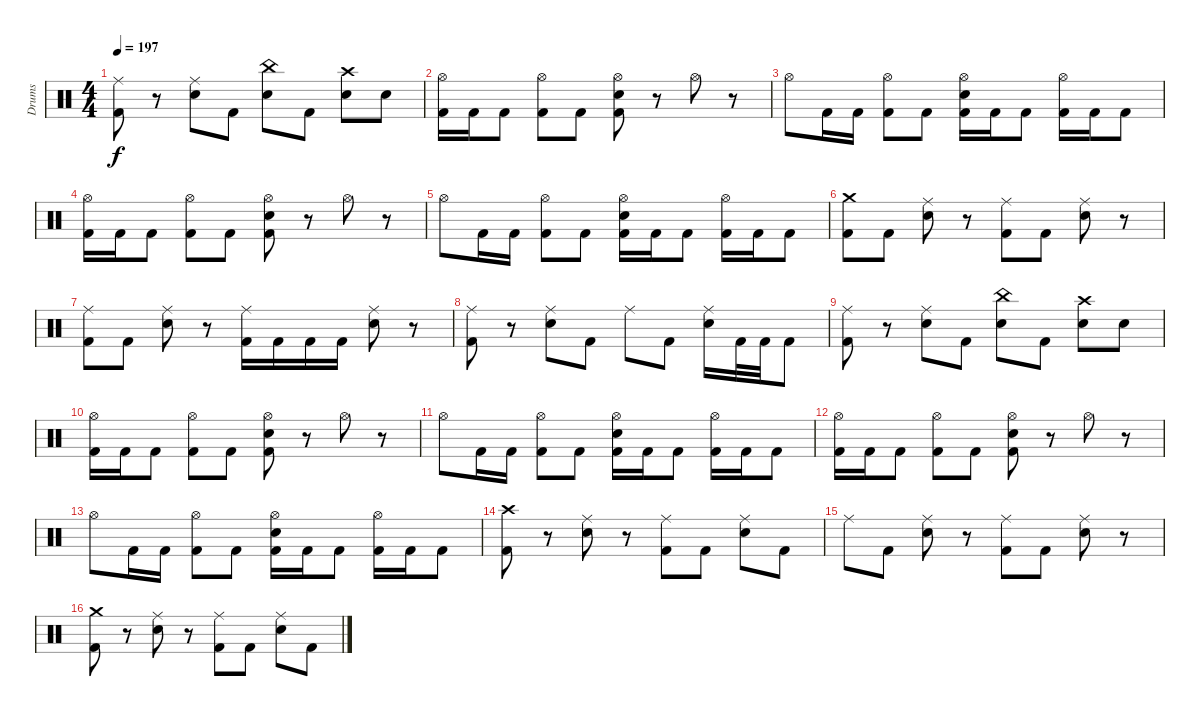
\track ("Drums" "Drums") {instrument percussion}
\staff {score}
\articulation defaults
\ts (4 4)
\tempo 197
\clef neutral
\ks c
("Ride (middle)" "Kick (hit) 2").8{dy f} r.8 ("Ride (middle)" "Electric Snare (hit)").8 "Kick (hit) 2".8 ("China (hit)" "Electric Snare (hit)").8 "Kick (hit) 2".8 ("Crash high (hit)" "Electric Snare (hit)").8 "Electric Snare (hit)".8 |
("Hi-Hat (open)" "Kick (hit) 2").16 "Kick (hit) 2".16 "Kick (hit) 2".8 ("Hi-Hat (open)" "Kick (hit) 2").8 "Kick (hit) 2".8 ("Hi-Hat (open)" "Electric Snare (hit)" "Kick (hit) 2").8 r.8 "Hi-Hat (open)".8 r.8 |
"Hi-Hat (open)".8 "Kick (hit) 2".16 "Kick (hit) 2".16 ("Hi-Hat (open)" "Kick (hit) 2").8 "Kick (hit) 2".8 ("Hi-Hat (open)" "Electric Snare (hit)" "Kick (hit) 2").16 "Kick (hit) 2".16 "Kick (hit) 2".8 ("Hi-Hat (open)" "Kick (hit) 2").16 "Kick (hit) 2".16 "Kick (hit) 2".8 |
("Hi-Hat (open)" "Kick (hit) 2").16 "Kick (hit) 2".16 "Kick (hit) 2".8 ("Hi-Hat (open)" "Kick (hit) 2").8 "Kick (hit) 2".8 ("Hi-Hat (open)" "Electric Snare (hit)" "Kick (hit) 2").8 r.8 "Hi-Hat (open)".8 r.8 |
"Hi-Hat (open)".8 "Kick (hit) 2".16 "Kick (hit) 2".16 ("Hi-Hat (open)" "Kick (hit) 2").8 "Kick (hit) 2".8 ("Hi-Hat (open)" "Electric Snare (hit)" "Kick (hit) 2").16 "Kick (hit) 2".16 "Kick (hit) 2".8 ("Hi-Hat (open)" "Kick (hit) 2").16 "Kick (hit) 2".16 "Kick (hit) 2".8 |
("Crash medium (hit)" "Kick (hit) 2").8 "Kick (hit) 2".8 ("Ride (middle)" "Electric Snare (hit)").8 r.8 ("Ride (middle)" "Kick (hit) 2").8 "Kick (hit) 2".8 ("Ride (middle)" "Electric Snare (hit)").8 r.8 |
("Ride (middle)" "Kick (hit) 2").8 "Kick (hit) 2".8 ("Ride (middle)" "Electric Snare (hit)").8 r.8 ("Ride (middle)" "Kick (hit) 2").16 "Kick (hit) 2".16 "Kick (hit) 2".16 "Kick (hit) 2".16 ("Ride (middle)" "Electric Snare (hit)").8 r.8 |
("Ride (middle)" "Kick (hit) 2").8 r.8 ("Ride (middle)" "Electric Snare (hit)").8 "Kick (hit) 2".8 "Ride (middle)".8 "Kick (hit) 2".8 ("Ride (middle)" "Electric Snare (hit)").16 "Kick (hit) 2".32 "Kick (hit) 2".32 "Kick (hit) 2".8 |
("Ride (middle)" "Kick (hit) 2").8 r.8 ("Ride (middle)" "Electric Snare (hit)").8 "Kick (hit) 2".8 ("China (hit)" "Electric Snare (hit)").8 "Kick (hit) 2".8 ("Crash high (hit)" "Electric Snare (hit)").8 "Electric Snare (hit)".8 |
("Hi-Hat (open)" "Kick (hit) 2").16 "Kick (hit) 2".16 "Kick (hit) 2".8 ("Hi-Hat (open)" "Kick (hit) 2").8 "Kick (hit) 2".8 ("Hi-Hat (open)" "Electric Snare (hit)" "Kick (hit) 2").8 r.8 "Hi-Hat (open)".8 r.8 |
"Hi-Hat (open)".8 "Kick (hit) 2".16 "Kick (hit) 2".16 ("Hi-Hat (open)" "Kick (hit) 2").8 "Kick (hit) 2".8 ("Hi-Hat (open)" "Electric Snare (hit)" "Kick (hit) 2").16 "Kick (hit) 2".16 "Kick (hit) 2".8 ("Hi-Hat (open)" "Kick (hit) 2").16 "Kick (hit) 2".16 "Kick (hit) 2".8 |
("Hi-Hat (open)" "Kick (hit) 2").16 "Kick (hit) 2".16 "Kick (hit) 2".8 ("Hi-Hat (open)" "Kick (hit) 2").8 "Kick (hit) 2".8 ("Hi-Hat (open)" "Electric Snare (hit)" "Kick (hit) 2").8 r.8 "Hi-Hat (open)".8 r.8 |
"Hi-Hat (open)".8 "Kick (hit) 2".16 "Kick (hit) 2".16 ("Hi-Hat (open)" "Kick (hit) 2").8 "Kick (hit) 2".8 ("Hi-Hat (open)" "Electric Snare (hit)" "Kick (hit) 2").16 "Kick (hit) 2".16 "Kick (hit) 2".8 ("Hi-Hat (open)" "Kick (hit) 2").16 "Kick (hit) 2".16 "Kick (hit) 2".8 |
("Crash high (hit)" "Kick (hit) 2").8 r.8 ("Ride (middle)" "Electric Snare (hit)").8 r.8 ("Ride (middle)" "Kick (hit) 2").8 "Kick (hit) 2".8 ("Ride (middle)" "Electric Snare (hit)").8 "Kick (hit) 2".8 |
"Ride (middle)".8 "Kick (hit) 2".8 ("Ride (middle)" "Electric Snare (hit)").8 r.8 ("Ride (middle)" "Kick (hit) 2").8 "Kick (hit) 2".8 ("Ride (middle)" "Electric Snare (hit)").8 r.8 |
("Crash medium (hit)" "Kick (hit) 2").8 r.8 ("Ride (middle)" "Electric Snare (hit)").8 r.8 ("Ride (middle)" "Kick (hit) 2").8 "Kick (hit) 2".8 ("Ride (middle)" "Electric Snare (hit)").8 "Kick (hit) 2".8
